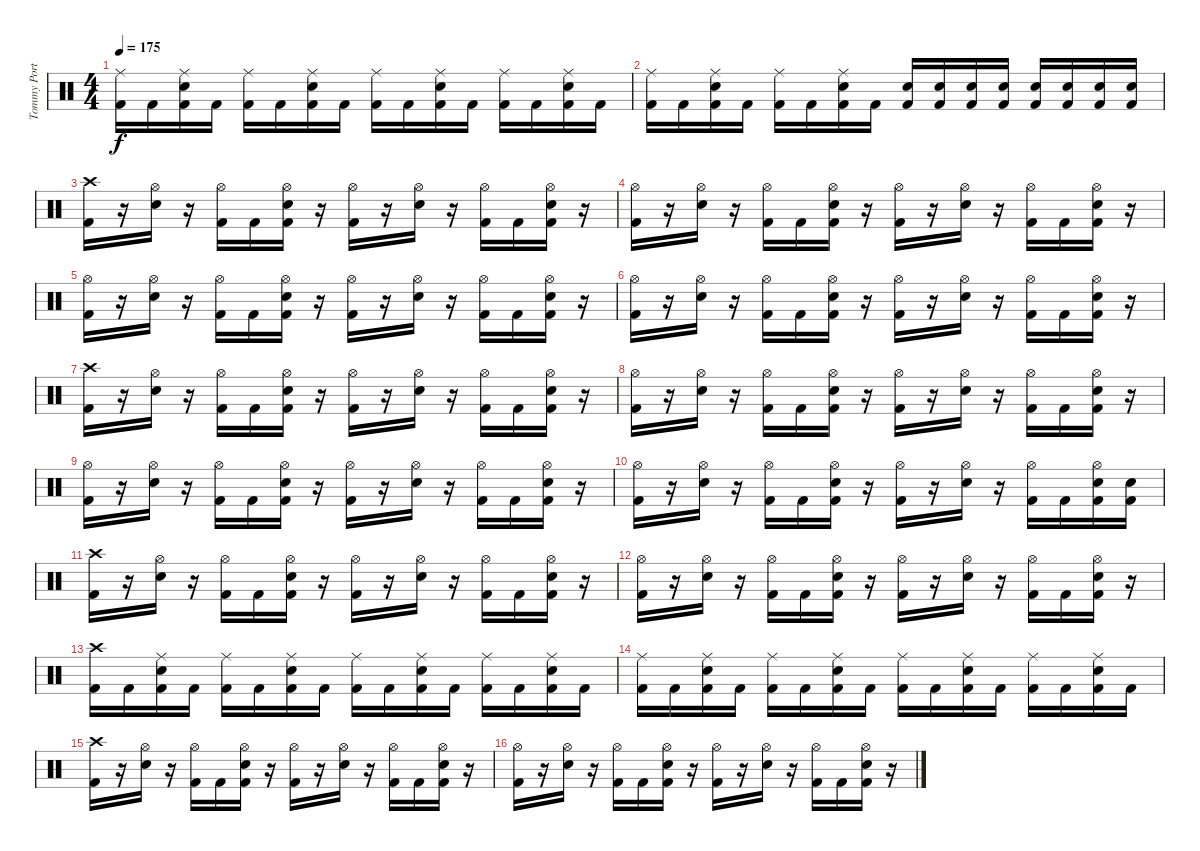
\track ("Tommy Portimo" "Tommy Port") {instrument percussion}
\staff {score}
\articulation defaults
\ts (4 4)
\tempo 175
\clef neutral
\ks c
("Ride (middle)" "Kick (hit) 2").16{dy f} "Kick (hit) 2".16 ("Ride (middle)" "Electric Snare (hit)" "Kick (hit) 2").16 "Kick (hit) 2".16 ("Ride (middle)" "Kick (hit) 2").16 "Kick (hit) 2".16 ("Ride (middle)" "Electric Snare (hit)" "Kick (hit) 2").16 "Kick (hit) 2".16 ("Ride (middle)" "Kick (hit) 2").16 "Kick (hit) 2".16 ("Ride (middle)" "Electric Snare (hit)" "Kick (hit) 2").16 "Kick (hit) 2".16 ("Ride (middle)" "Kick (hit) 2").16 "Kick (hit) 2".16 ("Ride (middle)" "Electric Snare (hit)" "Kick (hit) 2").16 "Kick (hit) 2".16 |
("Ride (middle)" "Kick (hit) 2").16 "Kick (hit) 2".16 ("Ride (middle)" "Electric Snare (hit)" "Kick (hit) 2").16 "Kick (hit) 2".16 ("Ride (middle)" "Kick (hit) 2").16 "Kick (hit) 2".16 ("Ride (middle)" "Electric Snare (hit)" "Kick (hit) 2").16 "Kick (hit) 2".16 ("Electric Snare (hit)" "Kick (hit) 2").16 ("Electric Snare (hit)" "Kick (hit) 2").16 ("Electric Snare (hit)" "Kick (hit) 2").16 ("Electric Snare (hit)" "Kick (hit) 2").16 ("Electric Snare (hit)" "Kick (hit) 2").16 ("Electric Snare (hit)" "Kick (hit) 2").16 ("Electric Snare (hit)" "Kick (hit) 2").16 ("Electric Snare (hit)" "Kick (hit) 2").16 |
("Crash high (hit)" "Kick (hit) 2").16 r.16 ("Hi-Hat (open)" "Electric Snare (hit)").16 r.16 ("Hi-Hat (open)" "Kick (hit) 2").16 "Kick (hit) 2".16 ("Hi-Hat (open)" "Electric Snare (hit)" "Kick (hit) 2").16 r.16 ("Hi-Hat (open)" "Kick (hit) 2").16 r.16 ("Hi-Hat (open)" "Electric Snare (hit)").16 r.16 ("Hi-Hat (open)" "Kick (hit) 2").16 "Kick (hit) 2".16 ("Hi-Hat (open)" "Electric Snare (hit)" "Kick (hit) 2").16 r.16 |
("Hi-Hat (open)" "Kick (hit) 2").16 r.16 ("Hi-Hat (open)" "Electric Snare (hit)").16 r.16 ("Hi-Hat (open)" "Kick (hit) 2").16 "Kick (hit) 2".16 ("Hi-Hat (open)" "Electric Snare (hit)" "Kick (hit) 2").16 r.16 ("Hi-Hat (open)" "Kick (hit) 2").16 r.16 ("Hi-Hat (open)" "Electric Snare (hit)").16 r.16 ("Hi-Hat (open)" "Kick (hit) 2").16 "Kick (hit) 2".16 ("Hi-Hat (open)" "Electric Snare (hit)" "Kick (hit) 2").16 r.16 |
("Hi-Hat (open)" "Kick (hit) 2").16 r.16 ("Hi-Hat (open)" "Electric Snare (hit)").16 r.16 ("Hi-Hat (open)" "Kick (hit) 2").16 "Kick (hit) 2".16 ("Hi-Hat (open)" "Electric Snare (hit)" "Kick (hit) 2").16 r.16 ("Hi-Hat (open)" "Kick (hit) 2").16 r.16 ("Hi-Hat (open)" "Electric Snare (hit)").16 r.16 ("Hi-Hat (open)" "Kick (hit) 2").16 "Kick (hit) 2".16 ("Hi-Hat (open)" "Electric Snare (hit)" "Kick (hit) 2").16 r.16 |
("Hi-Hat (open)" "Kick (hit) 2").16 r.16 ("Hi-Hat (open)" "Electric Snare (hit)").16 r.16 ("Hi-Hat (open)" "Kick (hit) 2").16 "Kick (hit) 2".16 ("Hi-Hat (open)" "Electric Snare (hit)" "Kick (hit) 2").16 r.16 ("Hi-Hat (open)" "Kick (hit) 2").16 r.16 ("Hi-Hat (open)" "Electric Snare (hit)").16 r.16 ("Hi-Hat (open)" "Kick (hit) 2").16 "Kick (hit) 2".16 ("Hi-Hat (open)" "Electric Snare (hit)" "Kick (hit) 2").16 r.16 |
("Crash high (hit)" "Kick (hit) 2").16 r.16 ("Hi-Hat (open)" "Electric Snare (hit)").16 r.16 ("Hi-Hat (open)" "Kick (hit) 2").16 "Kick (hit) 2".16 ("Hi-Hat (open)" "Electric Snare (hit)" "Kick (hit) 2").16 r.16 ("Hi-Hat (open)" "Kick (hit) 2").16 r.16 ("Hi-Hat (open)" "Electric Snare (hit)").16 r.16 ("Hi-Hat (open)" "Kick (hit) 2").16 "Kick (hit) 2".16 ("Hi-Hat (open)" "Electric Snare (hit)" "Kick (hit) 2").16 r.16 |
("Hi-Hat (open)" "Kick (hit) 2").16 r.16 ("Hi-Hat (open)" "Electric Snare (hit)").16 r.16 ("Hi-Hat (open)" "Kick (hit) 2").16 "Kick (hit) 2".16 ("Hi-Hat (open)" "Electric Snare (hit)" "Kick (hit) 2").16 r.16 ("Hi-Hat (open)" "Kick (hit) 2").16 r.16 ("Hi-Hat (open)" "Electric Snare (hit)").16 r.16 ("Hi-Hat (open)" "Kick (hit) 2").16 "Kick (hit) 2".16 ("Hi-Hat (open)" "Electric Snare (hit)" "Kick (hit) 2").16 r.16 |
("Hi-Hat (open)" "Kick (hit) 2").16 r.16 ("Hi-Hat (open)" "Electric Snare (hit)").16 r.16 ("Hi-Hat (open)" "Kick (hit) 2").16 "Kick (hit) 2".16 ("Hi-Hat (open)" "Electric Snare (hit)" "Kick (hit) 2").16 r.16 ("Hi-Hat (open)" "Kick (hit) 2").16 r.16 ("Hi-Hat (open)" "Electric Snare (hit)").16 r.16 ("Hi-Hat (open)" "Kick (hit) 2").16 "Kick (hit) 2".16 ("Hi-Hat (open)" "Electric Snare (hit)" "Kick (hit) 2").16 r.16 |
("Hi-Hat (open)" "Kick (hit) 2").16 r.16 ("Hi-Hat (open)" "Electric Snare (hit)").16 r.16 ("Hi-Hat (open)" "Kick (hit) 2").16 "Kick (hit) 2".16 ("Hi-Hat (open)" "Electric Snare (hit)" "Kick (hit) 2").16 r.16 ("Hi-Hat (open)" "Kick (hit) 2").16 r.16 ("Hi-Hat (open)" "Electric Snare (hit)").16 r.16 ("Hi-Hat (open)" "Kick (hit) 2").16 "Kick (hit) 2".16 ("Hi-Hat (open)" "Electric Snare (hit)" "Kick (hit) 2").16 ("Electric Snare (hit)" "Kick (hit) 2").16 |
("Crash high (hit)" "Kick (hit) 2").16 r.16 ("Hi-Hat (open)" "Electric Snare (hit)").16 r.16 ("Hi-Hat (open)" "Kick (hit) 2").16 "Kick (hit) 2".16 ("Hi-Hat (open)" "Electric Snare (hit)" "Kick (hit) 2").16 r.16 ("Hi-Hat (open)" "Kick (hit) 2").16 r.16 ("Hi-Hat (open)" "Electric Snare (hit)").16 r.16 ("Hi-Hat (open)" "Kick (hit) 2").16 "Kick (hit) 2".16 ("Hi-Hat (open)" "Electric Snare (hit)" "Kick (hit) 2").16 r.16 |
("Hi-Hat (open)" "Kick (hit) 2").16 r.16 ("Hi-Hat (open)" "Electric Snare (hit)").16 r.16 ("Hi-Hat (open)" "Kick (hit) 2").16 "Kick (hit) 2".16 ("Hi-Hat (open)" "Electric Snare (hit)" "Kick (hit) 2").16 r.16 ("Hi-Hat (open)" "Kick (hit) 2").16 r.16 ("Hi-Hat (open)" "Electric Snare (hit)").16 r.16 ("Hi-Hat (open)" "Kick (hit) 2").16 "Kick (hit) 2".16 ("Hi-Hat (open)" "Electric Snare (hit)" "Kick (hit) 2").16 r.16 |
("Crash high (hit)" "Kick (hit) 2").16 "Kick (hit) 2".16 ("Ride (middle)" "Electric Snare (hit)" "Kick (hit) 2").16 "Kick (hit) 2".16 ("Ride (middle)" "Kick (hit) 2").16 "Kick (hit) 2".16 ("Ride (middle)" "Electric Snare (hit)" "Kick (hit) 2").16 "Kick (hit) 2".16 ("Ride (middle)" "Kick (hit) 2").16 "Kick (hit) 2".16 ("Ride (middle)" "Electric Snare (hit)" "Kick (hit) 2").16 "Kick (hit) 2".16 ("Ride (middle)" "Kick (hit) 2").16 "Kick (hit) 2".16 ("Ride (middle)" "Electric Snare (hit)" "Kick (hit) 2").16 "Kick (hit) 2".16 |
("Ride (middle)" "Kick (hit) 2").16 "Kick (hit) 2".16 ("Ride (middle)" "Electric Snare (hit)" "Kick (hit) 2").16 "Kick (hit) 2".16 ("Ride (middle)" "Kick (hit) 2").16 "Kick (hit) 2".16 ("Ride (middle)" "Electric Snare (hit)" "Kick (hit) 2").16 "Kick (hit) 2".16 ("Ride (middle)" "Kick (hit) 2").16 "Kick (hit) 2".16 ("Ride (middle)" "Electric Snare (hit)" "Kick (hit) 2").16 "Kick (hit) 2".16 ("Ride (middle)" "Kick (hit) 2").16 "Kick (hit) 2".16 ("Ride (middle)" "Electric Snare (hit)" "Kick (hit) 2").16 "Kick (hit) 2".16 |
("Crash high (hit)" "Kick (hit) 2").16 r.16 ("Hi-Hat (open)" "Electric Snare (hit)").16 r.16 ("Hi-Hat (open)" "Kick (hit) 2").16 "Kick (hit) 2".16 ("Hi-Hat (open)" "Electric Snare (hit)" "Kick (hit) 2").16 r.16 ("Hi-Hat (open)" "Kick (hit) 2").16 r.16 ("Hi-Hat (open)" "Electric Snare (hit)").16 r.16 ("Hi-Hat (open)" "Kick (hit) 2").16 "Kick (hit) 2".16 ("Hi-Hat (open)" "Electric Snare (hit)" "Kick (hit) 2").16 r.16 |
("Hi-Hat (open)" "Kick (hit) 2").16 r.16 ("Hi-Hat (open)" "Electric Snare (hit)").16 r.16 ("Hi-Hat (open)" "Kick (hit) 2").16 "Kick (hit) 2".16 ("Hi-Hat (open)" "Electric Snare (hit)" "Kick (hit) 2").16 r.16 ("Hi-Hat (open)" "Kick (hit) 2").16 r.16 ("Hi-Hat (open)" "Electric Snare (hit)").16 r.16 ("Hi-Hat (open)" "Kick (hit) 2").16 "Kick (hit) 2".16 ("Hi-Hat (open)" "Electric Snare (hit)" "Kick (hit) 2").16 r.16
